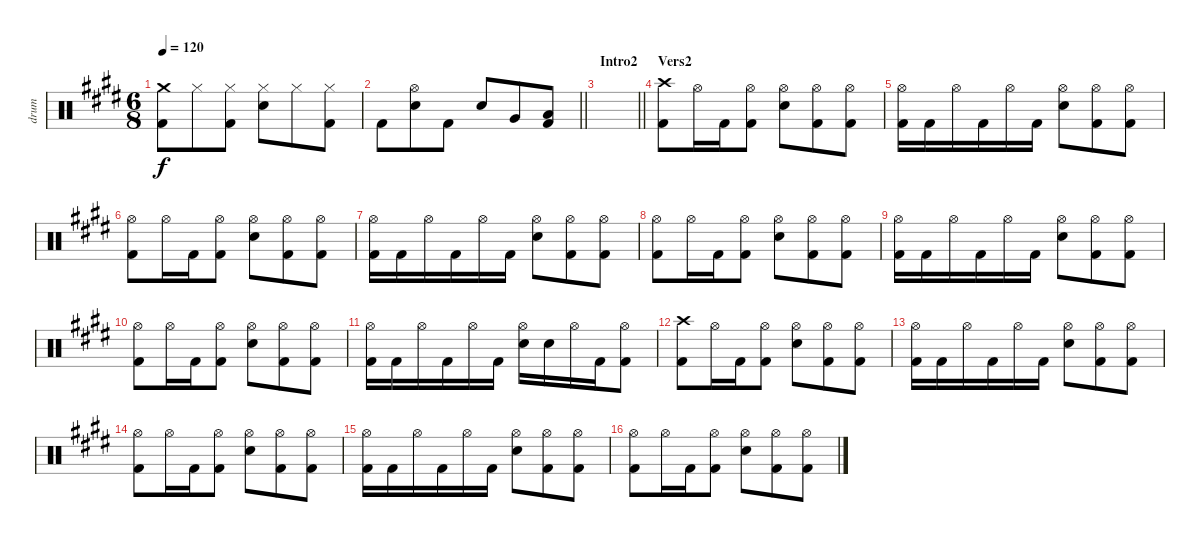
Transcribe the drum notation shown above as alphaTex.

\track ("drum" "drum") {instrument percussion}
\staff {score}
\articulation defaults
\ts (6 8)
\tempo 120
\clef neutral
\ks e
("Crash medium (hit)" "Kick (hit) 2").8{dy f} "Hi-Hat (closed)".8 ("Hi-Hat (closed)" "Kick (hit) 2").8 ("Hi-Hat (closed)" "Snare (hit) 2").8 "Hi-Hat (closed)".8 ("Hi-Hat (closed)" "Kick (hit) 2").8 |
\barLineRight lightlight "Kick (hit) 2".8
("Hi-Hat (open)" "Snare (hit) 2").8 "Kick (hit) 2".8 "Snare (hit) 2".8 "Very Low Tom (hit)".8 ("Low Floor Tom (hit)" "Kick (hit) 2").8 |
\section ("" "Intro2")
\barLineRight lightlight
|
\section ("" "Vers2")
("Crash high (hit)" "Kick (hit) 2").8 "Hi-Hat (open)".16 "Kick (hit) 2".16 ("Hi-Hat (open)" "Kick (hit) 2").8 ("Hi-Hat (open)" "Snare (hit) 2").8 ("Hi-Hat (open)" "Kick (hit) 2").8 ("Hi-Hat (open)" "Kick (hit) 2").8 |
("Hi-Hat (open)" "Kick (hit) 2").16 "Kick (hit) 2".16 "Hi-Hat (open)".16 "Kick (hit) 2".16 "Hi-Hat (open)".16 "Kick (hit) 2".16 ("Hi-Hat (open)" "Snare (hit) 2").8 ("Hi-Hat (open)" "Kick (hit) 2").8 ("Hi-Hat (open)" "Kick (hit) 2").8 |
("Hi-Hat (open)" "Kick (hit) 2").8 "Hi-Hat (open)".16 "Kick (hit) 2".16 ("Hi-Hat (open)" "Kick (hit) 2").8 ("Hi-Hat (open)" "Snare (hit) 2").8 ("Hi-Hat (open)" "Kick (hit) 2").8 ("Hi-Hat (open)" "Kick (hit) 2").8 |
("Hi-Hat (open)" "Kick (hit) 2").16 "Kick (hit) 2".16 "Hi-Hat (open)".16 "Kick (hit) 2".16 "Hi-Hat (open)".16 "Kick (hit) 2".16 ("Hi-Hat (open)" "Snare (hit) 2").8 ("Hi-Hat (open)" "Kick (hit) 2").8 ("Hi-Hat (open)" "Kick (hit) 2").8 |
("Hi-Hat (open)" "Kick (hit) 2").8 "Hi-Hat (open)".16 "Kick (hit) 2".16 ("Hi-Hat (open)" "Kick (hit) 2").8 ("Hi-Hat (open)" "Snare (hit) 2").8 ("Hi-Hat (open)" "Kick (hit) 2").8 ("Hi-Hat (open)" "Kick (hit) 2").8 |
("Hi-Hat (open)" "Kick (hit) 2").16 "Kick (hit) 2".16 "Hi-Hat (open)".16 "Kick (hit) 2".16 "Hi-Hat (open)".16 "Kick (hit) 2".16 ("Hi-Hat (open)" "Snare (hit) 2").8 ("Hi-Hat (open)" "Kick (hit) 2").8 ("Hi-Hat (open)" "Kick (hit) 2").8 |
("Hi-Hat (open)" "Kick (hit) 2").8 "Hi-Hat (open)".16 "Kick (hit) 2".16 ("Hi-Hat (open)" "Kick (hit) 2").8 ("Hi-Hat (open)" "Snare (hit) 2").8 ("Hi-Hat (open)" "Kick (hit) 2").8 ("Hi-Hat (open)" "Kick (hit) 2").8 |
("Hi-Hat (open)" "Kick (hit) 2").16 "Kick (hit) 2".16 "Hi-Hat (open)".16 "Kick (hit) 2".16 "Hi-Hat (open)".16 "Kick (hit) 2".16 ("Hi-Hat (open)" "Snare (hit) 2").16 "Snare (hit) 2".16 "Hi-Hat (open)".16 "Kick (hit) 2".16 ("Hi-Hat (open)" "Kick (hit) 2").8 |
("Crash high (hit)" "Kick (hit) 2").8 "Hi-Hat (open)".16 "Kick (hit) 2".16 ("Hi-Hat (open)" "Kick (hit) 2").8 ("Hi-Hat (open)" "Snare (hit) 2").8 ("Hi-Hat (open)" "Kick (hit) 2").8 ("Hi-Hat (open)" "Kick (hit) 2").8 |
("Hi-Hat (open)" "Kick (hit) 2").16 "Kick (hit) 2".16 "Hi-Hat (open)".16 "Kick (hit) 2".16 "Hi-Hat (open)".16 "Kick (hit) 2".16 ("Hi-Hat (open)" "Snare (hit) 2").8 ("Hi-Hat (open)" "Kick (hit) 2").8 ("Hi-Hat (open)" "Kick (hit) 2").8 |
("Hi-Hat (open)" "Kick (hit) 2").8 "Hi-Hat (open)".16 "Kick (hit) 2".16 ("Hi-Hat (open)" "Kick (hit) 2").8 ("Hi-Hat (open)" "Snare (hit) 2").8 ("Hi-Hat (open)" "Kick (hit) 2").8 ("Hi-Hat (open)" "Kick (hit) 2").8 |
("Hi-Hat (open)" "Kick (hit) 2").16 "Kick (hit) 2".16 "Hi-Hat (open)".16 "Kick (hit) 2".16 "Hi-Hat (open)".16 "Kick (hit) 2".16 ("Hi-Hat (open)" "Snare (hit) 2").8 ("Hi-Hat (open)" "Kick (hit) 2").8 ("Hi-Hat (open)" "Kick (hit) 2").8 |
("Hi-Hat (open)" "Kick (hit) 2").8 "Hi-Hat (open)".16 "Kick (hit) 2".16 ("Hi-Hat (open)" "Kick (hit) 2").8 ("Hi-Hat (open)" "Snare (hit) 2").8 ("Hi-Hat (open)" "Kick (hit) 2").8 ("Hi-Hat (open)" "Kick (hit) 2").8
